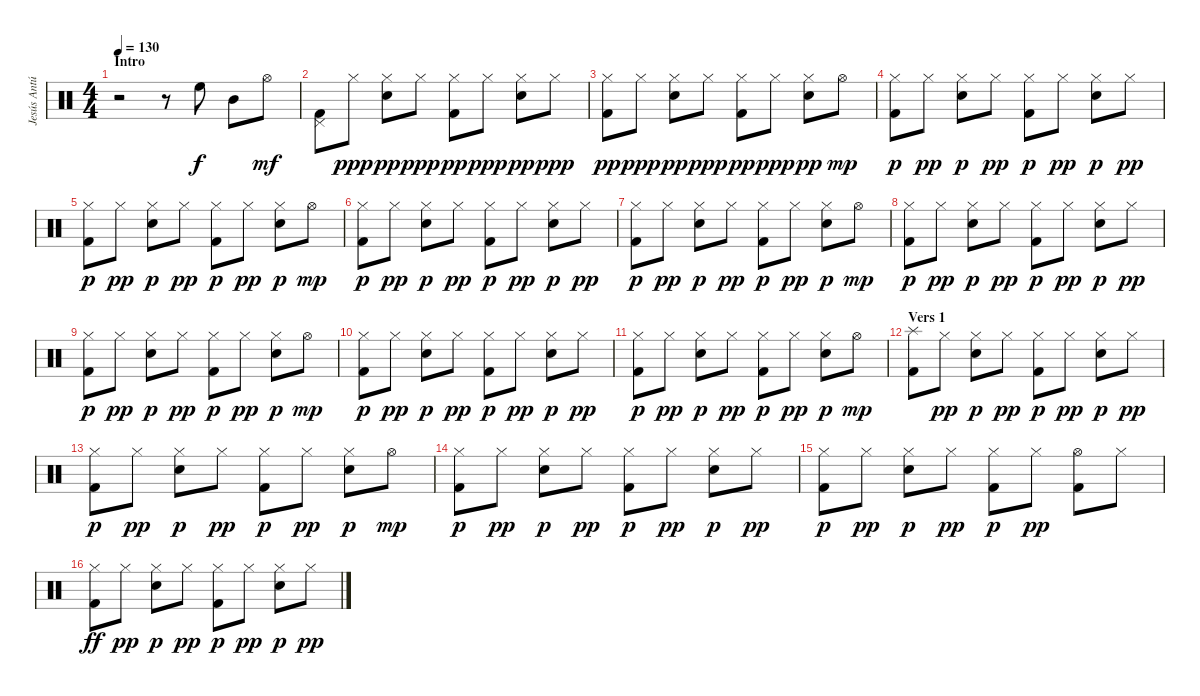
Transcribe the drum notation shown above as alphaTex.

\track ("Jesús Antúnez (Bateria)" "Jesús Antú") {instrument percussion}
\staff {score}
\articulation defaults
\ts (4 4)
\section ("" "Intro")
\tempo 130
\clef neutral
\ks c
r.2{dy f} r.8 "High Floor Tom (hit)".8 "Mid Tom (hit)".8 "Hi-Hat (open)".8{dy mf} |
("Pedal Hi-Hat (hit)" "Kick (hit) 2").8 "Hi-Hat (closed)".8{dy ppp} ("Snare (hit) 2" "Hi-Hat (closed)").8{dy pp} "Hi-Hat (closed)".8{dy ppp} ("Kick (hit) 2" "Hi-Hat (closed)").8{dy pp} "Hi-Hat (closed)".8{dy ppp} ("Snare (hit) 2" "Hi-Hat (closed)").8{dy pp} "Hi-Hat (closed)".8{dy ppp} |
("Hi-Hat (closed)" "Kick (hit) 2").8{dy pp} "Hi-Hat (closed)".8{dy ppp} ("Snare (hit) 2" "Hi-Hat (closed)").8{dy pp} "Hi-Hat (closed)".8{dy ppp} ("Kick (hit) 2" "Hi-Hat (closed)").8{dy pp} "Hi-Hat (closed)".8{dy ppp} ("Snare (hit) 2" "Hi-Hat (closed)").8{dy pp} "Hi-Hat (open)".8{dy mp} |
("Hi-Hat (closed)" "Kick (hit) 2").8{dy p} "Hi-Hat (closed)".8{dy pp} ("Snare (hit) 2" "Hi-Hat (closed)").8{dy p} "Hi-Hat (closed)".8{dy pp} ("Kick (hit) 2" "Hi-Hat (closed)").8{dy p} "Hi-Hat (closed)".8{dy pp} ("Snare (hit) 2" "Hi-Hat (closed)").8{dy p} "Hi-Hat (closed)".8{dy pp} |
("Hi-Hat (closed)" "Kick (hit) 2").8{dy p} "Hi-Hat (closed)".8{dy pp} ("Snare (hit) 2" "Hi-Hat (closed)").8{dy p} "Hi-Hat (closed)".8{dy pp} ("Kick (hit) 2" "Hi-Hat (closed)").8{dy p} "Hi-Hat (closed)".8{dy pp} ("Snare (hit) 2" "Hi-Hat (closed)").8{dy p} "Hi-Hat (open)".8{dy mp} |
("Hi-Hat (closed)" "Kick (hit) 2").8{dy p} "Hi-Hat (closed)".8{dy pp} ("Snare (hit) 2" "Hi-Hat (closed)").8{dy p} "Hi-Hat (closed)".8{dy pp} ("Kick (hit) 2" "Hi-Hat (closed)").8{dy p} "Hi-Hat (closed)".8{dy pp} ("Snare (hit) 2" "Hi-Hat (closed)").8{dy p} "Hi-Hat (closed)".8{dy pp} |
("Hi-Hat (closed)" "Kick (hit) 2").8{dy p} "Hi-Hat (closed)".8{dy pp} ("Snare (hit) 2" "Hi-Hat (closed)").8{dy p} "Hi-Hat (closed)".8{dy pp} ("Kick (hit) 2" "Hi-Hat (closed)").8{dy p} "Hi-Hat (closed)".8{dy pp} ("Snare (hit) 2" "Hi-Hat (closed)").8{dy p} "Hi-Hat (open)".8{dy mp} |
("Hi-Hat (closed)" "Kick (hit) 2").8{dy p} "Hi-Hat (closed)".8{dy pp} ("Snare (hit) 2" "Hi-Hat (closed)").8{dy p} "Hi-Hat (closed)".8{dy pp} ("Kick (hit) 2" "Hi-Hat (closed)").8{dy p} "Hi-Hat (closed)".8{dy pp} ("Snare (hit) 2" "Hi-Hat (closed)").8{dy p} "Hi-Hat (closed)".8{dy pp} |
("Hi-Hat (closed)" "Kick (hit) 2").8{dy p} "Hi-Hat (closed)".8{dy pp} ("Snare (hit) 2" "Hi-Hat (closed)").8{dy p} "Hi-Hat (closed)".8{dy pp} ("Kick (hit) 2" "Hi-Hat (closed)").8{dy p} "Hi-Hat (closed)".8{dy pp} ("Snare (hit) 2" "Hi-Hat (closed)").8{dy p} "Hi-Hat (open)".8{dy mp} |
("Hi-Hat (closed)" "Kick (hit) 2").8{dy p} "Hi-Hat (closed)".8{dy pp} ("Snare (hit) 2" "Hi-Hat (closed)").8{dy p} "Hi-Hat (closed)".8{dy pp} ("Kick (hit) 2" "Hi-Hat (closed)").8{dy p} "Hi-Hat (closed)".8{dy pp} ("Snare (hit) 2" "Hi-Hat (closed)").8{dy p} "Hi-Hat (closed)".8{dy pp} |
("Hi-Hat (closed)" "Kick (hit) 2").8{dy p} "Hi-Hat (closed)".8{dy pp} ("Snare (hit) 2" "Hi-Hat (closed)").8{dy p} "Hi-Hat (closed)".8{dy pp} ("Kick (hit) 2" "Hi-Hat (closed)").8{dy p} "Hi-Hat (closed)".8{dy pp} ("Snare (hit) 2" "Hi-Hat (closed)").8{dy p} "Hi-Hat (open)".8{dy mp} |
\section ("" "Vers 1")
("Splash (hit)" "Kick (hit) 2").8 "Hi-Hat (closed)".8{dy pp} ("Snare (hit) 2" "Hi-Hat (closed)").8{dy p} "Hi-Hat (closed)".8{dy pp} ("Kick (hit) 2" "Hi-Hat (closed)").8{dy p} "Hi-Hat (closed)".8{dy pp} ("Snare (hit) 2" "Hi-Hat (closed)").8{dy p} "Hi-Hat (closed)".8{dy pp} |
("Hi-Hat (closed)" "Kick (hit) 2").8{dy p} "Hi-Hat (closed)".8{dy pp} ("Snare (hit) 2" "Hi-Hat (closed)").8{dy p} "Hi-Hat (closed)".8{dy pp} ("Kick (hit) 2" "Hi-Hat (closed)").8{dy p} "Hi-Hat (closed)".8{dy pp} ("Snare (hit) 2" "Hi-Hat (closed)").8{dy p} "Hi-Hat (open)".8{dy mp} |
("Hi-Hat (closed)" "Kick (hit) 2").8{dy p} "Hi-Hat (closed)".8{dy pp} ("Snare (hit) 2" "Hi-Hat (closed)").8{dy p} "Hi-Hat (closed)".8{dy pp} ("Kick (hit) 2" "Hi-Hat (closed)").8{dy p} "Hi-Hat (closed)".8{dy pp} ("Snare (hit) 2" "Hi-Hat (closed)").8{dy p} "Hi-Hat (closed)".8{dy pp} |
("Hi-Hat (closed)" "Kick (hit) 2").8{dy p} "Hi-Hat (closed)".8{dy pp} ("Snare (hit) 2" "Hi-Hat (closed)").8{dy p} "Hi-Hat (closed)".8{dy pp} ("Kick (hit) 2" "Hi-Hat (closed)").8{dy p} "Hi-Hat (closed)".8{dy pp} ("Kick (hit) 2" "Hi-Hat (open)").8 "Hi-Hat (closed)".8 |
("Hi-Hat (closed)" "Kick (hit) 2").8{dy ff} "Hi-Hat (closed)".8{dy pp} ("Snare (hit) 2" "Hi-Hat (closed)").8{dy p} "Hi-Hat (closed)".8{dy pp} ("Kick (hit) 2" "Hi-Hat (closed)").8{dy p} "Hi-Hat (closed)".8{dy pp} ("Snare (hit) 2" "Hi-Hat (closed)").8{dy p} "Hi-Hat (closed)".8{dy pp}
